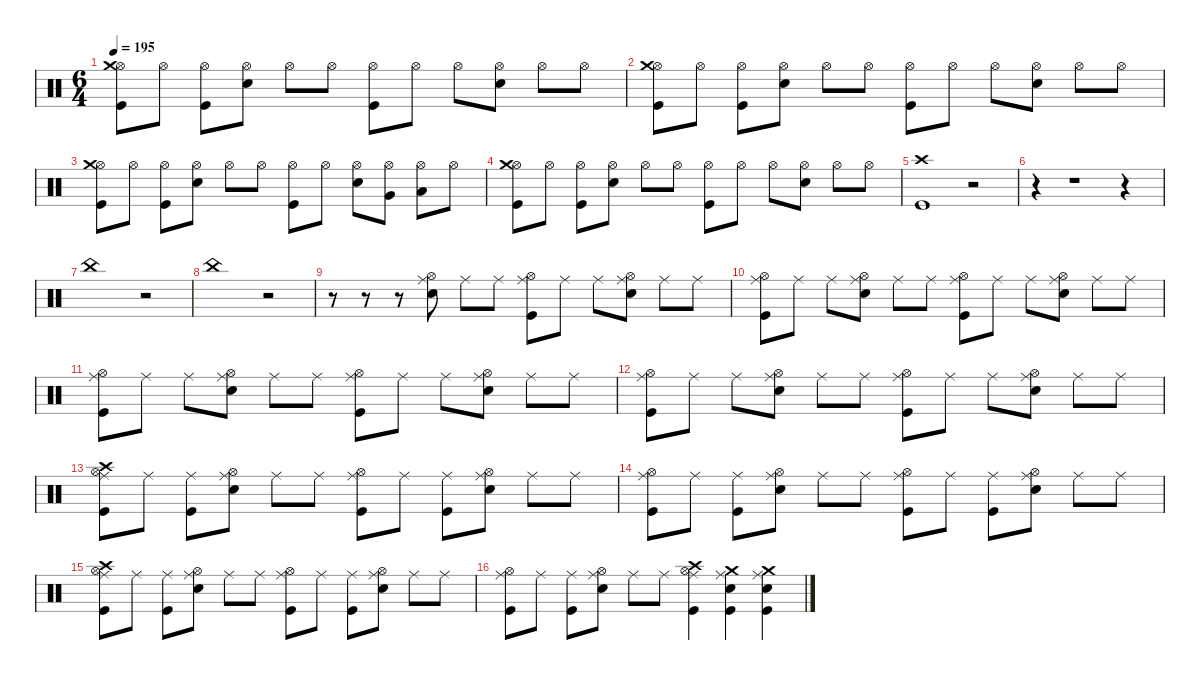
\defaultSystemsLayout 4
\hideDynamics
\bracketExtendMode nobrackets
\singleTrackTrackNamePolicy hidden
\multiTrackTrackNamePolicy hidden
\firstSystemTrackNameMode fullname
\firstSystemTrackNameOrientation horizontal
\otherSystemsTrackNameOrientation horizontal
\track ("Percussion" "drm.") {instrument percussion}
\staff {score}
\articulation defaults
\ts (6 4)
\tempo 195
\clef neutral
\ks c
("Hi-Hat (open)" "Crash medium (hit)" "Kick (hit)").8{dy f beam Down} "Hi-Hat (open)".8{beam Down} ("Hi-Hat (open)" "Kick (hit)").8{beam Down} ("Hi-Hat (open)" "Snare (hit) 2").8{beam Down} "Hi-Hat (open)".8{beam Down} "Hi-Hat (open)".8{beam Down} ("Hi-Hat (open)" "Kick (hit)").8{beam Down} "Hi-Hat (open)".8{beam Down} "Hi-Hat (open)".8{beam Down} ("Hi-Hat (open)" "Snare (hit) 2").8{beam Down} "Hi-Hat (open)".8{beam Down} "Hi-Hat (open)".8{beam Down} |
("Hi-Hat (open)" "Crash medium (hit)" "Kick (hit)").8{beam Down} "Hi-Hat (open)".8{beam Down} ("Hi-Hat (open)" "Kick (hit)").8{beam Down} ("Hi-Hat (open)" "Snare (hit) 2").8{beam Down} "Hi-Hat (open)".8{beam Down} "Hi-Hat (open)".8{beam Down} ("Hi-Hat (open)" "Kick (hit)").8{beam Down} "Hi-Hat (open)".8{beam Down} "Hi-Hat (open)".8{beam Down} ("Hi-Hat (open)" "Snare (hit) 2").8{beam Down} "Hi-Hat (open)".8{beam Down} "Hi-Hat (open)".8{beam Down} |
("Hi-Hat (open)" "Crash medium (hit)" "Kick (hit)").8{beam Down} "Hi-Hat (open)".8{beam Down} ("Hi-Hat (open)" "Kick (hit)").8{beam Down} ("Hi-Hat (open)" "Snare (hit) 2").8{beam Down} "Hi-Hat (open)".8{beam Down} "Hi-Hat (open)".8{beam Down} ("Hi-Hat (open)" "Kick (hit)").8{beam Down} "Hi-Hat (open)".8{beam Down} ("Hi-Hat (open)" "Snare (hit) 2").8{beam Down} ("Hi-Hat (open)" "Very Low Tom (hit)").8{beam Down} ("Hi-Hat (open)" "Low Floor Tom (hit)").8{beam Down} "Hi-Hat (open)".8{beam Down} |
("Hi-Hat (open)" "Crash medium (hit)" "Kick (hit)").8{beam Down} "Hi-Hat (open)".8{beam Down} ("Hi-Hat (open)" "Kick (hit)").8{beam Down} ("Hi-Hat (open)" "Snare (hit) 2").8{beam Down} "Hi-Hat (open)".8{beam Down} "Hi-Hat (open)".8{beam Down} ("Hi-Hat (open)" "Kick (hit)").8{beam Down} "Hi-Hat (open)".8{beam Down} "Hi-Hat (open)".8{beam Down} ("Hi-Hat (open)" "Snare (hit) 2").8{beam Down} "Hi-Hat (open)".8{beam Down} "Hi-Hat (open)".8{beam Down} |
("Crash high (hit)" "Kick (hit)").1{beam Down} r.2{beam Down} |
r.4{beam Down} r.1{beam Down} r.4{beam Down} |
"China (hit)".1{beam Down} r.2{beam Down} |
"China (hit)".1{beam Down} r.2{beam Down} |
r.8{beam Down} r.8{beam Down} r.8{beam Down} ("Hi-Hat (open)" "Ride (middle)" "Snare (hit) 2").8{beam Down} "Ride (middle)".8{beam Down} "Ride (middle)".8{beam Down} ("Hi-Hat (open)" "Ride (middle)" "Kick (hit)").8{beam Down} "Ride (middle)".8{beam Down} "Ride (middle)".8{beam Down} ("Hi-Hat (open)" "Ride (middle)" "Snare (hit) 2").8{beam Down} "Ride (middle)".8{beam Down} "Ride (middle)".8{beam Down} |
("Hi-Hat (open)" "Ride (middle)" "Kick (hit)").8{beam Down} "Ride (middle)".8{beam Down} "Ride (middle)".8{beam Down} ("Hi-Hat (open)" "Ride (middle)" "Snare (hit) 2").8{beam Down} "Ride (middle)".8{beam Down} "Ride (middle)".8{beam Down} ("Hi-Hat (open)" "Ride (middle)" "Kick (hit)").8{beam Down} "Ride (middle)".8{beam Down} "Ride (middle)".8{beam Down} ("Hi-Hat (open)" "Ride (middle)" "Snare (hit) 2").8{beam Down} "Ride (middle)".8{beam Down} "Ride (middle)".8{beam Down} |
("Hi-Hat (open)" "Ride (middle)" "Kick (hit)").8{beam Down} "Ride (middle)".8{beam Down} "Ride (middle)".8{beam Down} ("Hi-Hat (open)" "Ride (middle)" "Snare (hit) 2").8{beam Down} "Ride (middle)".8{beam Down} "Ride (middle)".8{beam Down} ("Hi-Hat (open)" "Ride (middle)" "Kick (hit)").8{beam Down} "Ride (middle)".8{beam Down} "Ride (middle)".8{beam Down} ("Hi-Hat (open)" "Ride (middle)" "Snare (hit) 2").8{beam Down} "Ride (middle)".8{beam Down} "Ride (middle)".8{beam Down} |
("Hi-Hat (open)" "Ride (middle)" "Kick (hit)").8{beam Down} "Ride (middle)".8{beam Down} "Ride (middle)".8{beam Down} ("Hi-Hat (open)" "Ride (middle)" "Snare (hit) 2").8{beam Down} "Ride (middle)".8{beam Down} "Ride (middle)".8{beam Down} ("Hi-Hat (open)" "Ride (middle)" "Kick (hit)").8{beam Down} "Ride (middle)".8{beam Down} "Ride (middle)".8{beam Down} ("Hi-Hat (open)" "Ride (middle)" "Snare (hit) 2").8{beam Down} "Ride (middle)".8{beam Down} "Ride (middle)".8{beam Down} |
("Hi-Hat (open)" "Ride (middle)" "Crash high (hit)" "Kick (hit)").8{beam Down} "Ride (middle)".8{beam Down} ("Ride (middle)" "Kick (hit)").8{beam Down} ("Hi-Hat (open)" "Ride (middle)" "Snare (hit) 2").8{beam Down} "Ride (middle)".8{beam Down} "Ride (middle)".8{beam Down} ("Hi-Hat (open)" "Ride (middle)" "Kick (hit)").8{beam Down} "Ride (middle)".8{beam Down} ("Ride (middle)" "Kick (hit)").8{beam Down} ("Hi-Hat (open)" "Ride (middle)" "Snare (hit) 2").8{beam Down} "Ride (middle)".8{beam Down} "Ride (middle)".8{beam Down} |
("Hi-Hat (open)" "Ride (middle)" "Kick (hit)").8{beam Down} "Ride (middle)".8{beam Down} ("Ride (middle)" "Kick (hit)").8{beam Down} ("Hi-Hat (open)" "Ride (middle)" "Snare (hit) 2").8{beam Down} "Ride (middle)".8{beam Down} "Ride (middle)".8{beam Down} ("Hi-Hat (open)" "Ride (middle)" "Kick (hit)").8{beam Down} "Ride (middle)".8{beam Down} ("Ride (middle)" "Kick (hit)").8{beam Down} ("Hi-Hat (open)" "Ride (middle)" "Snare (hit) 2").8{beam Down} "Ride (middle)".8{beam Down} "Ride (middle)".8{beam Down} |
("Hi-Hat (open)" "Ride (middle)" "Crash high (hit)" "Kick (hit)").8{beam Down} "Ride (middle)".8{beam Down} ("Ride (middle)" "Kick (hit)").8{beam Down} ("Hi-Hat (open)" "Ride (middle)" "Snare (hit) 2").8{beam Down} "Ride (middle)".8{beam Down} "Ride (middle)".8{beam Down} ("Hi-Hat (open)" "Ride (middle)" "Kick (hit)").8{beam Down} "Ride (middle)".8{beam Down} ("Ride (middle)" "Kick (hit)").8{beam Down} ("Hi-Hat (open)" "Ride (middle)" "Snare (hit) 2").8{beam Down} "Ride (middle)".8{beam Down} "Ride (middle)".8{beam Down} |
("Hi-Hat (open)" "Ride (middle)" "Kick (hit)").8{beam Down} "Ride (middle)".8{beam Down} ("Ride (middle)" "Kick (hit)").8{beam Down} ("Hi-Hat (open)" "Ride (middle)" "Snare (hit) 2").8{beam Down} "Ride (middle)".8{beam Down} "Ride (middle)".8{beam Down} ("Hi-Hat (open)" "Ride (middle)" "Crash high (hit)" "Kick (hit)").4{beam Down} ("Crash medium (hit)" "Ride (middle)" "Snare (hit) 2" "Kick (hit)").4{beam Down} ("Crash medium (hit)" "Ride (middle)" "Snare (hit) 2" "Kick (hit)").4{beam Down}
